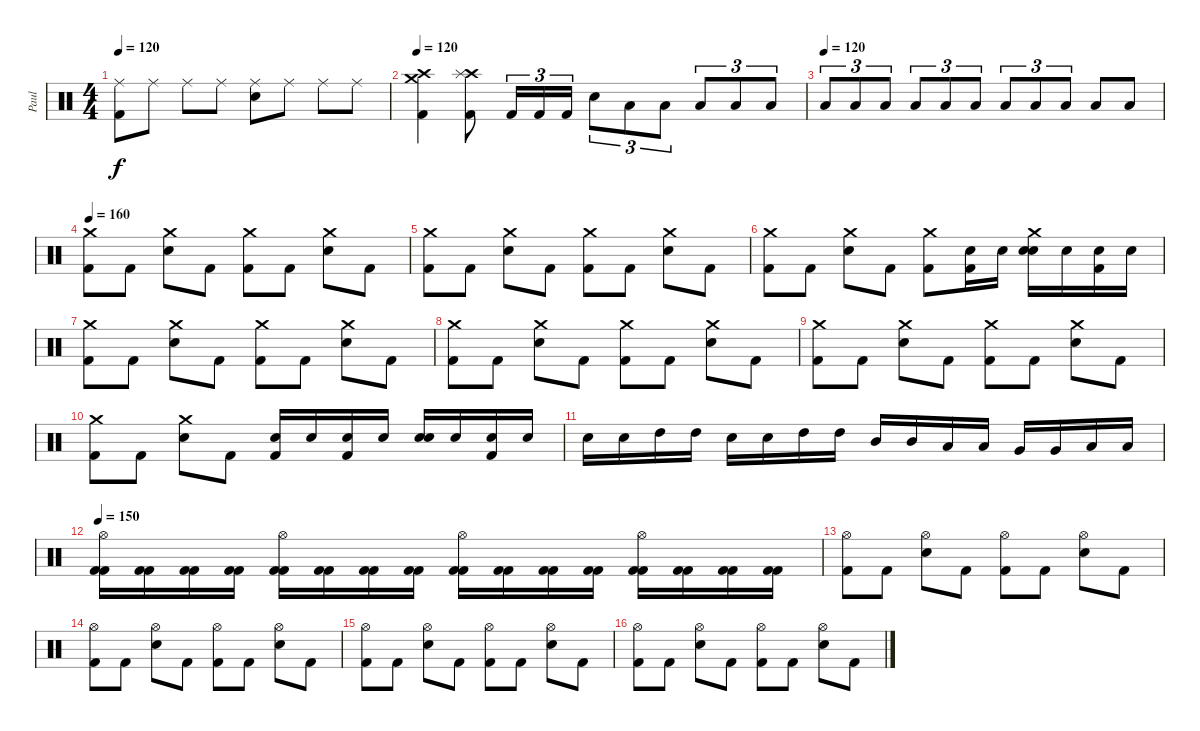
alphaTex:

\track ("Paul " "Paul ") {instrument percussion}
\staff {score}
\articulation defaults
\ts (4 4)
\tempo 120
\clef neutral
\ks c
("Ride (middle)" "Kick (hit) 2").8{dy f} "Ride (middle)".8 "Ride (middle)".8 "Ride (middle)".8 ("Ride (middle)" "Electric Snare (hit)").8 "Ride (middle)".8 "Ride (middle)".8 "Ride (middle)".8 |
\tempo 120
("Crash high (hit)" "Crash medium (hit)" "Kick (hit) 2").4 ("Crash high (hit)" "Splash (hit)" "Kick (hit) 2").8 "Kick (hit) 2".16{tu (3 2)} "Kick (hit) 2".16{tu (3 2)} "Kick (hit) 2".16{tu (3 2)} "Electric Snare (hit)".8{tu (3 2)} "Low Floor Tom (hit)".8{tu (3 2)} "Low Floor Tom (hit)".8{tu (3 2)} "Low Floor Tom (hit)".8{tu (3 2)} "Low Floor Tom (hit)".8{tu (3 2)} "Low Floor Tom (hit)".8{tu (3 2)} |
\tempo (120)
"Low Floor Tom (hit)".8{tu (3 2)} "Low Floor Tom (hit)".8{tu (3 2)} "Low Floor Tom (hit)".8{tu (3 2)} "Low Floor Tom (hit)".8{tu (3 2)} "Low Floor Tom (hit)".8{tu (3 2)} "Low Floor Tom (hit)".8{tu (3 2)} "Low Floor Tom (hit)".8{tu (3 2)} "Low Floor Tom (hit)".8{tu (3 2)} "Low Floor Tom (hit)".8{tu (3 2)} "Low Floor Tom (hit)".8 "Low Floor Tom (hit)".8 |
\tempo 160
("Crash medium (hit)" "Kick (hit) 2").8 "Kick (hit) 2".8 ("Crash medium (hit)" "Electric Snare (hit)").8 "Kick (hit) 2".8 ("Crash medium (hit)" "Kick (hit) 2").8 "Kick (hit) 2".8 ("Crash medium (hit)" "Electric Snare (hit)").8 "Kick (hit) 2".8 |
("Crash medium (hit)" "Kick (hit) 2").8 "Kick (hit) 2".8 ("Crash medium (hit)" "Electric Snare (hit)").8 "Kick (hit) 2".8 ("Crash medium (hit)" "Kick (hit) 2").8 "Kick (hit) 2".8 ("Crash medium (hit)" "Electric Snare (hit)").8 "Kick (hit) 2".8 |
("Crash medium (hit)" "Kick (hit) 2").8 "Kick (hit) 2".8 ("Crash medium (hit)" "Electric Snare (hit)").8 "Kick (hit) 2".8 ("Crash medium (hit)" "Kick (hit) 2").8 ("Electric Snare (hit)" "Kick (hit) 2").16 "Electric Snare (hit)".16 ("Electric Snare (hit)" "Crash medium (hit)" "Electric Snare (hit)").16 "Electric Snare (hit)".16 ("Electric Snare (hit)" "Kick (hit) 2").16 "Electric Snare (hit)".16 |
("Crash medium (hit)" "Kick (hit) 2").8 "Kick (hit) 2".8 ("Crash medium (hit)" "Electric Snare (hit)").8 "Kick (hit) 2".8 ("Crash medium (hit)" "Kick (hit) 2").8 "Kick (hit) 2".8 ("Crash medium (hit)" "Electric Snare (hit)").8 "Kick (hit) 2".8 |
("Crash medium (hit)" "Kick (hit) 2").8 "Kick (hit) 2".8 ("Crash medium (hit)" "Electric Snare (hit)").8 "Kick (hit) 2".8 ("Crash medium (hit)" "Kick (hit) 2").8 "Kick (hit) 2".8 ("Crash medium (hit)" "Electric Snare (hit)").8 "Kick (hit) 2".8 |
("Crash medium (hit)" "Kick (hit) 2").8 "Kick (hit) 2".8 ("Crash medium (hit)" "Electric Snare (hit)").8 "Kick (hit) 2".8 ("Crash medium (hit)" "Kick (hit) 2").8 "Kick (hit) 2".8 ("Crash medium (hit)" "Electric Snare (hit)").8 "Kick (hit) 2".8 |
("Crash medium (hit)" "Kick (hit) 2").8 "Kick (hit) 2".8 ("Crash medium (hit)" "Electric Snare (hit)").8 "Kick (hit) 2".8 ("Electric Snare (hit)" "Kick (hit) 2").16 "Electric Snare (hit)".16 ("Electric Snare (hit)" "Kick (hit) 2").16 "Electric Snare (hit)".16 ("Electric Snare (hit)" "Electric Snare (hit)").16 "Electric Snare (hit)".16 ("Electric Snare (hit)" "Kick (hit) 2").16 "Electric Snare (hit)".16 |
"Electric Snare (hit)".16 "Electric Snare (hit)".16 "High Tom (hit)".16 "High Tom (hit)".16 "Electric Snare (hit)".16 "Electric Snare (hit)".16 "High Tom (hit)".16 "High Tom (hit)".16 "Mid Tom (hit)".16 "Mid Tom (hit)".16 "Low Tom (hit)".16 "Low Tom (hit)".16 "Very Low Tom (hit)".16 "Very Low Tom (hit)".16 "Low Floor Tom (hit)".16 "Low Floor Tom (hit)".16 |
\tempo 150
("Kick (hit) 2" "Hi-Hat (open)" "Kick (hit) 2").16 ("Kick (hit) 2" "Kick (hit) 2").16 ("Kick (hit) 2" "Kick (hit) 2").16 ("Kick (hit) 2" "Kick (hit) 2").16 ("Kick (hit) 2" "Hi-Hat (open)" "Kick (hit) 2").16 ("Kick (hit) 2" "Kick (hit) 2").16 ("Kick (hit) 2" "Kick (hit) 2").16 ("Kick (hit) 2" "Kick (hit) 2").16 ("Kick (hit) 2" "Hi-Hat (open)" "Kick (hit) 2").16 ("Kick (hit) 2" "Kick (hit) 2").16 ("Kick (hit) 2" "Kick (hit) 2").16 ("Kick (hit) 2" "Kick (hit) 2").16 ("Kick (hit) 2" "Hi-Hat (open)" "Kick (hit) 2").16 ("Kick (hit) 2" "Kick (hit) 2").16 ("Kick (hit) 2" "Kick (hit) 2").16 ("Kick (hit) 2" "Kick (hit) 2").16 |
("Hi-Hat (open)" "Kick (hit) 2").8 "Kick (hit) 2".8 ("Hi-Hat (open)" "Electric Snare (hit)").8 "Kick (hit) 2".8 ("Hi-Hat (open)" "Kick (hit) 2").8 "Kick (hit) 2".8 ("Hi-Hat (open)" "Electric Snare (hit)").8 "Kick (hit) 2".8 |
("Hi-Hat (open)" "Kick (hit) 2").8 "Kick (hit) 2".8 ("Hi-Hat (open)" "Electric Snare (hit)").8 "Kick (hit) 2".8 ("Hi-Hat (open)" "Kick (hit) 2").8 "Kick (hit) 2".8 ("Hi-Hat (open)" "Electric Snare (hit)").8 "Kick (hit) 2".8 |
("Hi-Hat (open)" "Kick (hit) 2").8 "Kick (hit) 2".8 ("Hi-Hat (open)" "Electric Snare (hit)").8 "Kick (hit) 2".8 ("Hi-Hat (open)" "Kick (hit) 2").8 "Kick (hit) 2".8 ("Hi-Hat (open)" "Electric Snare (hit)").8 "Kick (hit) 2".8 |
("Hi-Hat (open)" "Kick (hit) 2").8 "Kick (hit) 2".8 ("Hi-Hat (open)" "Electric Snare (hit)").8 "Kick (hit) 2".8 ("Hi-Hat (open)" "Kick (hit) 2").8 "Kick (hit) 2".8 ("Hi-Hat (open)" "Electric Snare (hit)").8 "Kick (hit) 2".8
